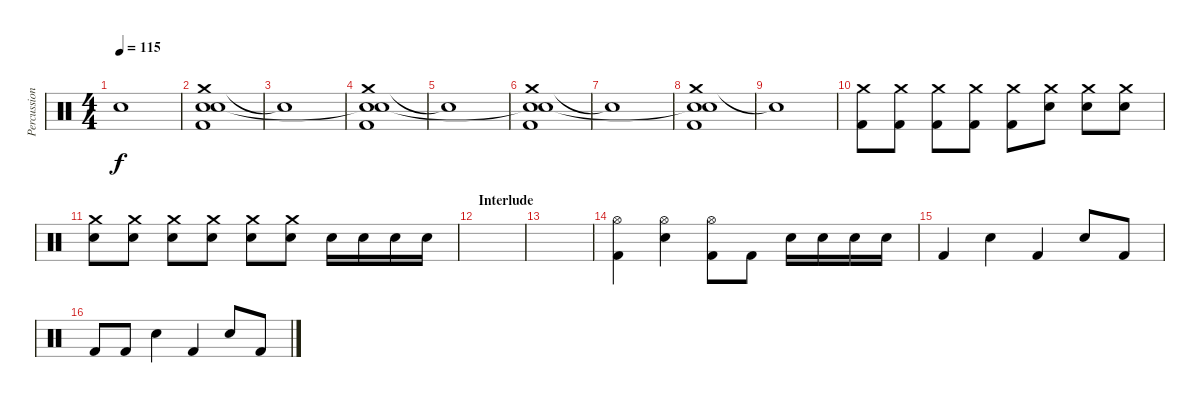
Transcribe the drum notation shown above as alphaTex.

\track ("Percussioni" "Percussion") {instrument percussion}
\staff {score}
\articulation defaults
\ts (4 4)
\tempo 115
\clef neutral
\ks c "Snare (hit)"{t}.1{dy f}
|
("Crash medium (hit)" "Snare (hit)"{t} "Snare (hit) 2" "Kick (hit) 2").1 |
"Snare (hit)"{t}.1 |
("Crash medium (hit)" "Snare (hit)"{t} "Snare (hit) 2" "Kick (hit) 2").1 |
"Snare (hit)"{t}.1 |
("Crash medium (hit)" "Snare (hit)"{t} "Snare (hit) 2" "Kick (hit) 2").1 |
"Snare (hit)"{t}.1 |
("Crash medium (hit)" "Snare (hit)"{t} "Snare (hit) 2" "Kick (hit) 2").1 |
"Snare (hit)"{t}.1 |
("Crash medium (hit)" "Kick (hit) 2").8 ("Crash medium (hit)" "Kick (hit) 2").8 ("Crash medium (hit)" "Kick (hit) 2").8 ("Crash medium (hit)" "Kick (hit) 2").8 ("Crash medium (hit)" "Kick (hit) 2").8 ("Crash medium (hit)" "Snare (hit) 2").8 ("Crash medium (hit)" "Snare (hit) 2").8 ("Crash medium (hit)" "Snare (hit) 2").8 |
("Crash medium (hit)" "Snare (hit) 2").8 ("Crash medium (hit)" "Snare (hit) 2").8 ("Crash medium (hit)" "Snare (hit) 2").8 ("Crash medium (hit)" "Snare (hit) 2").8 ("Crash medium (hit)" "Snare (hit) 2").8 ("Crash medium (hit)" "Snare (hit) 2").8 "Snare (hit) 2".16 "Snare (hit) 2".16 "Snare (hit) 2".16 "Snare (hit) 2".16 |
\section ("" "Interlude")
|
|
("Hi-Hat (open)" "Kick (hit) 2").4 ("Hi-Hat (open)" "Snare (hit) 2").4 ("Hi-Hat (open)" "Kick (hit) 2").8 "Kick (hit) 2".8 "Snare (hit) 2".16 "Snare (hit) 2".16 "Snare (hit) 2".16 "Snare (hit) 2".16 |
"Kick (hit) 2".4 "Snare (hit) 2".4 "Kick (hit) 2".4 "Snare (hit) 2".8 "Kick (hit) 2".8 |
"Kick (hit) 2".8 "Kick (hit) 2".8 "Snare (hit) 2".4 "Kick (hit) 2".4 "Snare (hit) 2".8 "Kick (hit) 2".8
